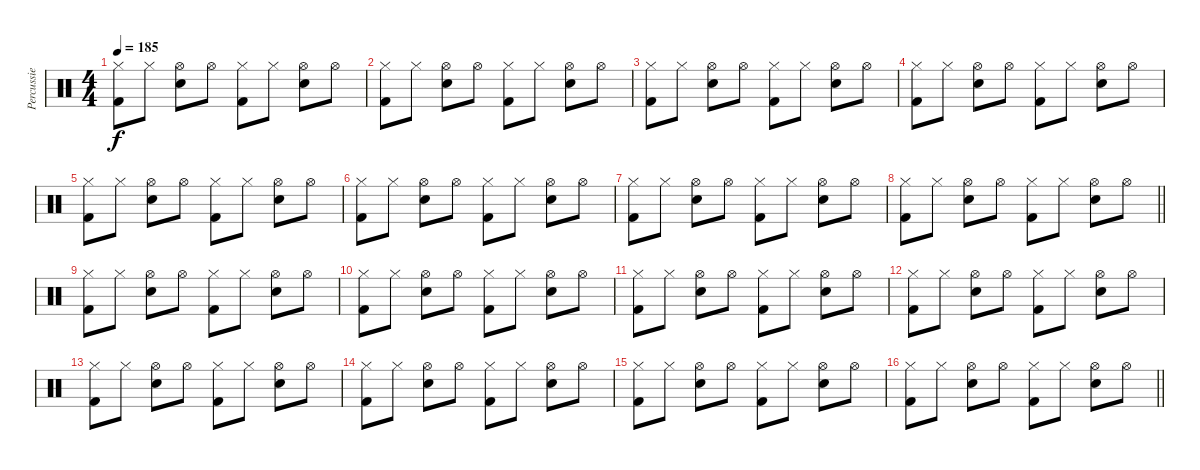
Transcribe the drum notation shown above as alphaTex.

\track ("Percussie" "Percussie") {instrument percussion}
\staff {score}
\articulation defaults
\ts (4 4)
\tempo 185
\clef neutral
\ks c
("Hi-Hat (closed)" "Kick (hit) 2").8{dy f} "Hi-Hat (closed)".8 ("Hi-Hat (open)" "Snare (hit) 2").8 "Hi-Hat (open)".8 ("Hi-Hat (closed)" "Kick (hit) 2").8 "Hi-Hat (closed)".8 ("Hi-Hat (open)" "Snare (hit) 2").8 "Hi-Hat (open)".8 |
("Hi-Hat (closed)" "Kick (hit) 2").8 "Hi-Hat (closed)".8 ("Hi-Hat (open)" "Snare (hit) 2").8 "Hi-Hat (open)".8 ("Hi-Hat (closed)" "Kick (hit) 2").8 "Hi-Hat (closed)".8 ("Hi-Hat (open)" "Snare (hit) 2").8 "Hi-Hat (open)".8 |
("Hi-Hat (closed)" "Kick (hit) 2").8 "Hi-Hat (closed)".8 ("Hi-Hat (open)" "Snare (hit) 2").8 "Hi-Hat (open)".8 ("Hi-Hat (closed)" "Kick (hit) 2").8 "Hi-Hat (closed)".8 ("Hi-Hat (open)" "Snare (hit) 2").8 "Hi-Hat (open)".8 |
("Hi-Hat (closed)" "Kick (hit) 2").8 "Hi-Hat (closed)".8 ("Hi-Hat (open)" "Snare (hit) 2").8 "Hi-Hat (open)".8 ("Hi-Hat (closed)" "Kick (hit) 2").8 "Hi-Hat (closed)".8 ("Hi-Hat (open)" "Snare (hit) 2").8 "Hi-Hat (open)".8 |
("Hi-Hat (closed)" "Kick (hit) 2").8 "Hi-Hat (closed)".8 ("Hi-Hat (open)" "Snare (hit) 2").8 "Hi-Hat (open)".8 ("Hi-Hat (closed)" "Kick (hit) 2").8 "Hi-Hat (closed)".8 ("Hi-Hat (open)" "Snare (hit) 2").8 "Hi-Hat (open)".8 |
("Hi-Hat (closed)" "Kick (hit) 2").8 "Hi-Hat (closed)".8 ("Hi-Hat (open)" "Snare (hit) 2").8 "Hi-Hat (open)".8 ("Hi-Hat (closed)" "Kick (hit) 2").8 "Hi-Hat (closed)".8 ("Hi-Hat (open)" "Snare (hit) 2").8 "Hi-Hat (open)".8 |
("Hi-Hat (closed)" "Kick (hit) 2").8 "Hi-Hat (closed)".8 ("Hi-Hat (open)" "Snare (hit) 2").8 "Hi-Hat (open)".8 ("Hi-Hat (closed)" "Kick (hit) 2").8 "Hi-Hat (closed)".8 ("Hi-Hat (open)" "Snare (hit) 2").8 "Hi-Hat (open)".8 |
\barLineRight lightlight
("Hi-Hat (closed)" "Kick (hit) 2").8 "Hi-Hat (closed)".8 ("Hi-Hat (open)" "Snare (hit) 2").8 "Hi-Hat (open)".8 ("Hi-Hat (closed)" "Kick (hit) 2").8 "Hi-Hat (closed)".8 ("Hi-Hat (open)" "Snare (hit) 2").8 "Hi-Hat (open)".8 |
("Hi-Hat (closed)" "Kick (hit) 2").8 "Hi-Hat (closed)".8 ("Hi-Hat (open)" "Snare (hit) 2").8 "Hi-Hat (open)".8 ("Hi-Hat (closed)" "Kick (hit) 2").8 "Hi-Hat (closed)".8 ("Hi-Hat (open)" "Snare (hit) 2").8 "Hi-Hat (open)".8 |
("Hi-Hat (closed)" "Kick (hit) 2").8 "Hi-Hat (closed)".8 ("Hi-Hat (open)" "Snare (hit) 2").8 "Hi-Hat (open)".8 ("Hi-Hat (closed)" "Kick (hit) 2").8 "Hi-Hat (closed)".8 ("Hi-Hat (open)" "Snare (hit) 2").8 "Hi-Hat (open)".8 |
("Hi-Hat (closed)" "Kick (hit) 2").8 "Hi-Hat (closed)".8 ("Hi-Hat (open)" "Snare (hit) 2").8 "Hi-Hat (open)".8 ("Hi-Hat (closed)" "Kick (hit) 2").8 "Hi-Hat (closed)".8 ("Hi-Hat (open)" "Snare (hit) 2").8 "Hi-Hat (open)".8 |
("Hi-Hat (closed)" "Kick (hit) 2").8 "Hi-Hat (closed)".8 ("Hi-Hat (open)" "Snare (hit) 2").8 "Hi-Hat (open)".8 ("Hi-Hat (closed)" "Kick (hit) 2").8 "Hi-Hat (closed)".8 ("Hi-Hat (open)" "Snare (hit) 2").8 "Hi-Hat (open)".8 |
("Hi-Hat (closed)" "Kick (hit) 2").8 "Hi-Hat (closed)".8 ("Hi-Hat (open)" "Snare (hit) 2").8 "Hi-Hat (open)".8 ("Hi-Hat (closed)" "Kick (hit) 2").8 "Hi-Hat (closed)".8 ("Hi-Hat (open)" "Snare (hit) 2").8 "Hi-Hat (open)".8 |
("Hi-Hat (closed)" "Kick (hit) 2").8 "Hi-Hat (closed)".8 ("Hi-Hat (open)" "Snare (hit) 2").8 "Hi-Hat (open)".8 ("Hi-Hat (closed)" "Kick (hit) 2").8 "Hi-Hat (closed)".8 ("Hi-Hat (open)" "Snare (hit) 2").8 "Hi-Hat (open)".8 |
("Hi-Hat (closed)" "Kick (hit) 2").8 "Hi-Hat (closed)".8 ("Hi-Hat (open)" "Snare (hit) 2").8 "Hi-Hat (open)".8 ("Hi-Hat (closed)" "Kick (hit) 2").8 "Hi-Hat (closed)".8 ("Hi-Hat (open)" "Snare (hit) 2").8 "Hi-Hat (open)".8 |
\barLineRight lightlight
("Hi-Hat (closed)" "Kick (hit) 2").8 "Hi-Hat (closed)".8 ("Hi-Hat (open)" "Snare (hit) 2").8 "Hi-Hat (open)".8 ("Hi-Hat (closed)" "Kick (hit) 2").8 "Hi-Hat (closed)".8 ("Hi-Hat (open)" "Snare (hit) 2").8 "Hi-Hat (open)".8
